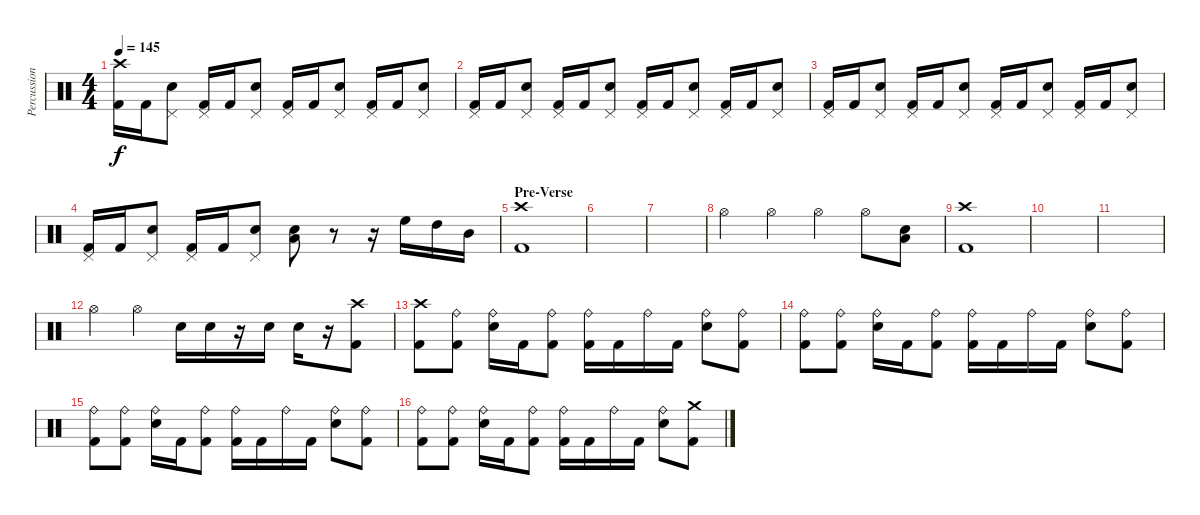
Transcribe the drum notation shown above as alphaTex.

\track ("Percussion" "Percussion") {instrument percussion}
\staff {score}
\articulation defaults
\ts (4 4)
\tempo 145
\clef neutral
\ks c
("Kick (hit) 2" "Crash high (hit)").16{dy f} "Kick (hit) 2".16 ("Electric Snare (hit)" "Pedal Hi-Hat (hit)").8 ("Kick (hit) 2" "Pedal Hi-Hat (hit)").16 "Kick (hit) 2".16 ("Electric Snare (hit)" "Pedal Hi-Hat (hit)").8 ("Kick (hit) 2" "Pedal Hi-Hat (hit)").16 "Kick (hit) 2".16 ("Electric Snare (hit)" "Pedal Hi-Hat (hit)").8 ("Kick (hit) 2" "Pedal Hi-Hat (hit)").16 "Kick (hit) 2".16 ("Electric Snare (hit)" "Pedal Hi-Hat (hit)").8 |
("Kick (hit) 2" "Pedal Hi-Hat (hit)").16 "Kick (hit) 2".16 ("Electric Snare (hit)" "Pedal Hi-Hat (hit)").8 ("Kick (hit) 2" "Pedal Hi-Hat (hit)").16 "Kick (hit) 2".16 ("Electric Snare (hit)" "Pedal Hi-Hat (hit)").8 ("Kick (hit) 2" "Pedal Hi-Hat (hit)").16 "Kick (hit) 2".16 ("Electric Snare (hit)" "Pedal Hi-Hat (hit)").8 ("Kick (hit) 2" "Pedal Hi-Hat (hit)").16 "Kick (hit) 2".16 ("Electric Snare (hit)" "Pedal Hi-Hat (hit)").8 |
("Kick (hit) 2" "Pedal Hi-Hat (hit)").16 "Kick (hit) 2".16 ("Electric Snare (hit)" "Pedal Hi-Hat (hit)").8 ("Kick (hit) 2" "Pedal Hi-Hat (hit)").16 "Kick (hit) 2".16 ("Electric Snare (hit)" "Pedal Hi-Hat (hit)").8 ("Kick (hit) 2" "Pedal Hi-Hat (hit)").16 "Kick (hit) 2".16 ("Electric Snare (hit)" "Pedal Hi-Hat (hit)").8 ("Kick (hit) 2" "Pedal Hi-Hat (hit)").16 "Kick (hit) 2".16 ("Electric Snare (hit)" "Pedal Hi-Hat (hit)").8 |
("Kick (hit) 2" "Pedal Hi-Hat (hit)").16 "Kick (hit) 2".16 ("Electric Snare (hit)" "Pedal Hi-Hat (hit)").8 ("Kick (hit) 2" "Pedal Hi-Hat (hit)").16 "Kick (hit) 2".16 ("Electric Snare (hit)" "Pedal Hi-Hat (hit)").8 ("Electric Snare (hit)" "Low Tom (hit)").8 r.8 r.16 "High Floor Tom (hit)".16 "High Tom (hit)".16 "Mid Tom (hit)".16 |
\section ("" "Pre-Verse")
("Kick (hit) 2" "Crash high (hit)").1 |
|
|
"Hi-Hat (open)".4 "Hi-Hat (open)".4 "Hi-Hat (open)".4 "Hi-Hat (open)".8 ("Electric Snare (hit)" "Low Tom (hit)").8 |
("Kick (hit) 2" "Crash high (hit)").1 |
|
|
"Hi-Hat (open)".4 "Hi-Hat (open)".4 "Electric Snare (hit)".16 "Electric Snare (hit)".16 r.16 "Electric Snare (hit)".16 "Electric Snare (hit)".16 r.16 ("Kick (hit) 2" "Crash high (hit)").8 |
("Kick (hit) 2" "Crash high (hit)").8 ("Kick (hit) 2" "Ride (bell)").8 ("Electric Snare (hit)" "Ride (bell)").16 "Kick (hit) 2".16 ("Kick (hit) 2" "Ride (bell)").8 ("Kick (hit) 2" "Ride (bell)").16 "Kick (hit) 2".16 "Ride (bell)".16 "Kick (hit) 2".16 ("Electric Snare (hit)" "Ride (bell)").8 ("Kick (hit) 2" "Ride (bell)").8 |
("Kick (hit) 2" "Ride (bell)").8 ("Kick (hit) 2" "Ride (bell)").8 ("Electric Snare (hit)" "Ride (bell)").16 "Kick (hit) 2".16 ("Kick (hit) 2" "Ride (bell)").8 ("Kick (hit) 2" "Ride (bell)").16 "Kick (hit) 2".16 "Ride (bell)".16 "Kick (hit) 2".16 ("Electric Snare (hit)" "Ride (bell)").8 ("Kick (hit) 2" "Ride (bell)").8 |
("Kick (hit) 2" "Ride (bell)").8 ("Kick (hit) 2" "Ride (bell)").8 ("Electric Snare (hit)" "Ride (bell)").16 "Kick (hit) 2".16 ("Kick (hit) 2" "Ride (bell)").8 ("Kick (hit) 2" "Ride (bell)").16 "Kick (hit) 2".16 "Ride (bell)".16 "Kick (hit) 2".16 ("Electric Snare (hit)" "Ride (bell)").8 ("Kick (hit) 2" "Ride (bell)").8 |
("Kick (hit) 2" "Ride (bell)").8 ("Kick (hit) 2" "Ride (bell)").8 ("Electric Snare (hit)" "Ride (bell)").16 "Kick (hit) 2".16 ("Kick (hit) 2" "Ride (bell)").8 ("Kick (hit) 2" "Ride (bell)").16 "Kick (hit) 2".16 "Ride (bell)".16 "Kick (hit) 2".16 ("Electric Snare (hit)" "Ride (bell)").8 ("Kick (hit) 2" "Crash medium (hit)").8
